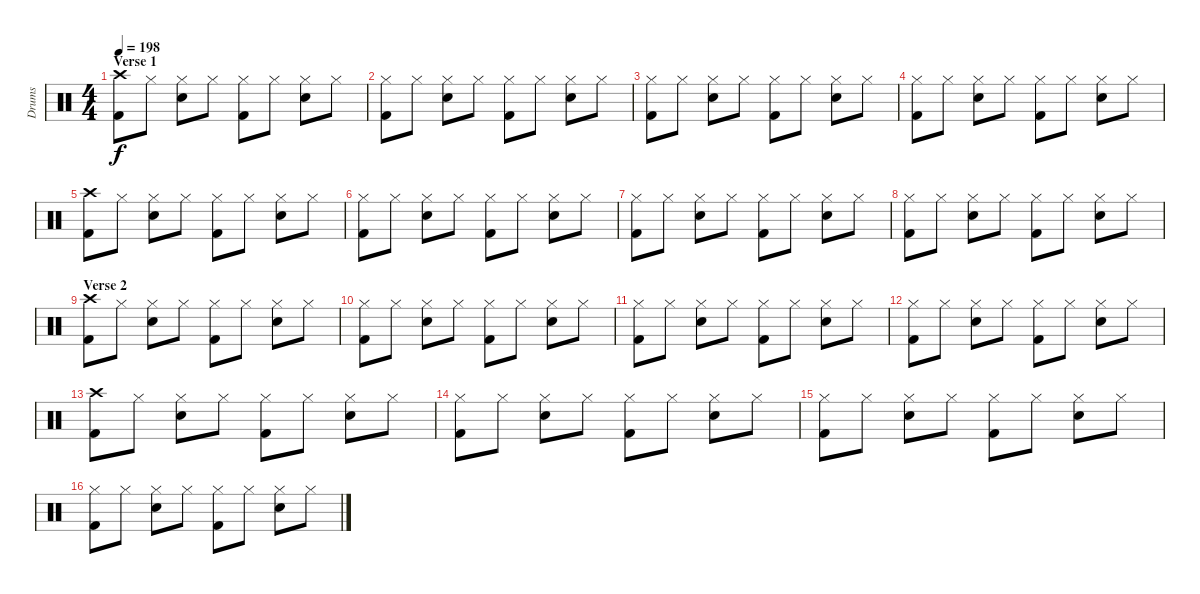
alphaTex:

\track ("Drums" "Drums") {instrument percussion}
\staff {score}
\articulation defaults
\ts (4 4)
\section ("" "Verse 1")
\tempo 198
\clef neutral
\ks c
("Crash high (hit)" "Kick (hit) 2").8{dy f} "Hi-Hat (closed)".8 ("Hi-Hat (closed)" "Snare (hit) 2").8 "Hi-Hat (closed)".8 ("Hi-Hat (closed)" "Kick (hit) 2").8 "Hi-Hat (closed)".8 ("Hi-Hat (closed)" "Snare (hit) 2").8 "Hi-Hat (closed)".8 |
("Hi-Hat (closed)" "Kick (hit) 2").8 "Hi-Hat (closed)".8 ("Hi-Hat (closed)" "Snare (hit) 2").8 "Hi-Hat (closed)".8 ("Hi-Hat (closed)" "Kick (hit) 2").8 "Hi-Hat (closed)".8 ("Hi-Hat (closed)" "Snare (hit) 2").8 "Hi-Hat (closed)".8 |
("Hi-Hat (closed)" "Kick (hit) 2").8 "Hi-Hat (closed)".8 ("Hi-Hat (closed)" "Snare (hit) 2").8 "Hi-Hat (closed)".8 ("Hi-Hat (closed)" "Kick (hit) 2").8 "Hi-Hat (closed)".8 ("Hi-Hat (closed)" "Snare (hit) 2").8 "Hi-Hat (closed)".8 |
("Hi-Hat (closed)" "Kick (hit) 2").8 "Hi-Hat (closed)".8 ("Hi-Hat (closed)" "Snare (hit) 2").8 "Hi-Hat (closed)".8 ("Hi-Hat (closed)" "Kick (hit) 2").8 "Hi-Hat (closed)".8 ("Hi-Hat (closed)" "Snare (hit) 2").8 "Hi-Hat (closed)".8 |
("Crash high (hit)" "Kick (hit) 2").8 "Hi-Hat (closed)".8 ("Hi-Hat (closed)" "Snare (hit) 2").8 "Hi-Hat (closed)".8 ("Hi-Hat (closed)" "Kick (hit) 2").8 "Hi-Hat (closed)".8 ("Hi-Hat (closed)" "Snare (hit) 2").8 "Hi-Hat (closed)".8 |
("Hi-Hat (closed)" "Kick (hit) 2").8 "Hi-Hat (closed)".8 ("Hi-Hat (closed)" "Snare (hit) 2").8 "Hi-Hat (closed)".8 ("Hi-Hat (closed)" "Kick (hit) 2").8 "Hi-Hat (closed)".8 ("Hi-Hat (closed)" "Snare (hit) 2").8 "Hi-Hat (closed)".8 |
("Hi-Hat (closed)" "Kick (hit) 2").8 "Hi-Hat (closed)".8 ("Hi-Hat (closed)" "Snare (hit) 2").8 "Hi-Hat (closed)".8 ("Hi-Hat (closed)" "Kick (hit) 2").8 "Hi-Hat (closed)".8 ("Hi-Hat (closed)" "Snare (hit) 2").8 "Hi-Hat (closed)".8 |
("Hi-Hat (closed)" "Kick (hit) 2").8 "Hi-Hat (closed)".8 ("Hi-Hat (closed)" "Snare (hit) 2").8 "Hi-Hat (closed)".8 ("Hi-Hat (closed)" "Kick (hit) 2").8 "Hi-Hat (closed)".8 ("Hi-Hat (closed)" "Snare (hit) 2").8 "Hi-Hat (closed)".8 |
\section ("" "Verse 2")
("Crash high (hit)" "Kick (hit) 2").8 "Hi-Hat (closed)".8 ("Hi-Hat (closed)" "Snare (hit) 2").8 "Hi-Hat (closed)".8 ("Hi-Hat (closed)" "Kick (hit) 2").8 "Hi-Hat (closed)".8 ("Hi-Hat (closed)" "Snare (hit) 2").8 "Hi-Hat (closed)".8 |
("Hi-Hat (closed)" "Kick (hit) 2").8 "Hi-Hat (closed)".8 ("Hi-Hat (closed)" "Snare (hit) 2").8 "Hi-Hat (closed)".8 ("Hi-Hat (closed)" "Kick (hit) 2").8 "Hi-Hat (closed)".8 ("Hi-Hat (closed)" "Snare (hit) 2").8 "Hi-Hat (closed)".8 |
("Hi-Hat (closed)" "Kick (hit) 2").8 "Hi-Hat (closed)".8 ("Hi-Hat (closed)" "Snare (hit) 2").8 "Hi-Hat (closed)".8 ("Hi-Hat (closed)" "Kick (hit) 2").8 "Hi-Hat (closed)".8 ("Hi-Hat (closed)" "Snare (hit) 2").8 "Hi-Hat (closed)".8 |
("Hi-Hat (closed)" "Kick (hit) 2").8 "Hi-Hat (closed)".8 ("Hi-Hat (closed)" "Snare (hit) 2").8 "Hi-Hat (closed)".8 ("Hi-Hat (closed)" "Kick (hit) 2").8 "Hi-Hat (closed)".8 ("Hi-Hat (closed)" "Snare (hit) 2").8 "Hi-Hat (closed)".8 |
("Crash high (hit)" "Kick (hit) 2").8 "Hi-Hat (closed)".8 ("Hi-Hat (closed)" "Snare (hit) 2").8 "Hi-Hat (closed)".8 ("Hi-Hat (closed)" "Kick (hit) 2").8 "Hi-Hat (closed)".8 ("Hi-Hat (closed)" "Snare (hit) 2").8 "Hi-Hat (closed)".8 |
("Hi-Hat (closed)" "Kick (hit) 2").8 "Hi-Hat (closed)".8 ("Hi-Hat (closed)" "Snare (hit) 2").8 "Hi-Hat (closed)".8 ("Hi-Hat (closed)" "Kick (hit) 2").8 "Hi-Hat (closed)".8 ("Hi-Hat (closed)" "Snare (hit) 2").8 "Hi-Hat (closed)".8 |
("Hi-Hat (closed)" "Kick (hit) 2").8 "Hi-Hat (closed)".8 ("Hi-Hat (closed)" "Snare (hit) 2").8 "Hi-Hat (closed)".8 ("Hi-Hat (closed)" "Kick (hit) 2").8 "Hi-Hat (closed)".8 ("Hi-Hat (closed)" "Snare (hit) 2").8 "Hi-Hat (closed)".8 |
("Hi-Hat (closed)" "Kick (hit) 2").8 "Hi-Hat (closed)".8 ("Hi-Hat (closed)" "Snare (hit) 2").8 "Hi-Hat (closed)".8 ("Hi-Hat (closed)" "Kick (hit) 2").8 "Hi-Hat (closed)".8 ("Hi-Hat (closed)" "Snare (hit) 2").8 "Hi-Hat (closed)".8
